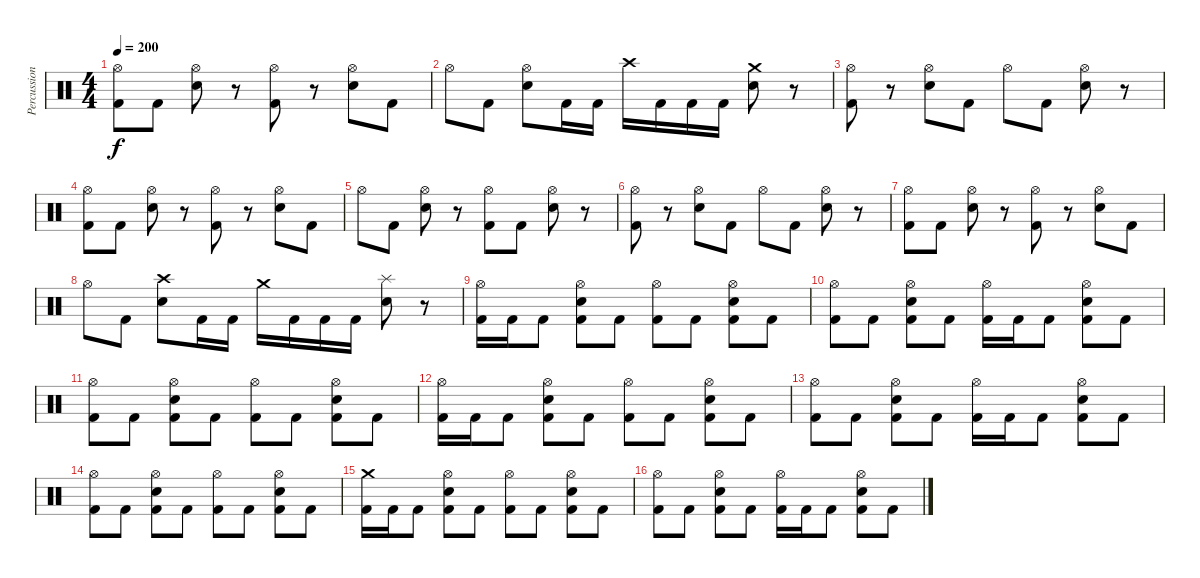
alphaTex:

\track ("Percussions" "Percussion") {instrument percussion}
\staff {score}
\articulation defaults
\ts (4 4)
\tempo 200
\clef neutral
\ks c
("Hi-Hat (open)" "Kick (hit) 2").8{dy f} "Kick (hit) 2".8 ("Hi-Hat (open)" "Electric Snare (hit)").8 r.8 ("Hi-Hat (open)" "Kick (hit) 2").8 r.8 ("Hi-Hat (open)" "Electric Snare (hit)").8 "Kick (hit) 2".8 |
"Hi-Hat (open)".8 "Kick (hit) 2".8 ("Hi-Hat (open)" "Electric Snare (hit)").8 "Kick (hit) 2".16 "Kick (hit) 2".16 "Crash high (hit)".16{balance 16} "Kick (hit) 2".16 "Kick (hit) 2".16 "Kick (hit) 2".16 ("Crash medium (hit)" "Electric Snare (hit)").8{balance 0} r.8 |
("Hi-Hat (open)" "Kick (hit) 2").8{balance 8} r.8 ("Hi-Hat (open)" "Electric Snare (hit)").8 "Kick (hit) 2".8 "Hi-Hat (open)".8 "Kick (hit) 2".8 ("Hi-Hat (open)" "Electric Snare (hit)").8 r.8 |
("Hi-Hat (open)" "Kick (hit) 2").8 "Kick (hit) 2".8 ("Hi-Hat (open)" "Electric Snare (hit)").8 r.8 ("Hi-Hat (open)" "Kick (hit) 2").8 r.8 ("Hi-Hat (open)" "Electric Snare (hit)").8 "Kick (hit) 2".8 |
"Hi-Hat (open)".8 "Kick (hit) 2".8 ("Hi-Hat (open)" "Electric Snare (hit)").8 r.8 ("Hi-Hat (open)" "Kick (hit) 2").8 "Kick (hit) 2".8 ("Hi-Hat (open)" "Electric Snare (hit)").8 r.8 |
("Hi-Hat (open)" "Kick (hit) 2").8 r.8 ("Hi-Hat (open)" "Electric Snare (hit)").8 "Kick (hit) 2".8 "Hi-Hat (open)".8 "Kick (hit) 2".8 ("Hi-Hat (open)" "Electric Snare (hit)").8 r.8 |
("Hi-Hat (open)" "Kick (hit) 2").8 "Kick (hit) 2".8 ("Hi-Hat (open)" "Electric Snare (hit)").8 r.8 ("Hi-Hat (open)" "Kick (hit) 2").8 r.8 ("Hi-Hat (open)" "Electric Snare (hit)").8 "Kick (hit) 2".8 |
"Hi-Hat (open)".8 "Kick (hit) 2".8 ("Crash high (hit)" "Electric Snare (hit)").8{balance 16} "Kick (hit) 2".16 "Kick (hit) 2".16 "Crash medium (hit)".16{balance 0} "Kick (hit) 2".16 "Kick (hit) 2".16 "Kick (hit) 2".16 ("Splash (hit)" "Electric Snare (hit)").8{balance 3} r.8 |
("Hi-Hat (open)" "Kick (hit) 2").16{balance 8} "Kick (hit) 2".16 "Kick (hit) 2".8 ("Hi-Hat (open)" "Electric Snare (hit)" "Kick (hit) 2").8 "Kick (hit) 2".8 ("Hi-Hat (open)" "Kick (hit) 2").8 "Kick (hit) 2".8 ("Hi-Hat (open)" "Electric Snare (hit)" "Kick (hit) 2").8 "Kick (hit) 2".8 |
("Hi-Hat (open)" "Kick (hit) 2").8 "Kick (hit) 2".8 ("Hi-Hat (open)" "Electric Snare (hit)" "Kick (hit) 2").8 "Kick (hit) 2".8 ("Hi-Hat (open)" "Kick (hit) 2").16 "Kick (hit) 2".16 "Kick (hit) 2".8 ("Hi-Hat (open)" "Electric Snare (hit)" "Kick (hit) 2").8 "Kick (hit) 2".8 |
("Hi-Hat (open)" "Kick (hit) 2").8 "Kick (hit) 2".8 ("Hi-Hat (open)" "Electric Snare (hit)" "Kick (hit) 2").8 "Kick (hit) 2".8 ("Hi-Hat (open)" "Kick (hit) 2").8 "Kick (hit) 2".8 ("Hi-Hat (open)" "Electric Snare (hit)" "Kick (hit) 2").8 "Kick (hit) 2".8 |
("Hi-Hat (open)" "Kick (hit) 2").16 "Kick (hit) 2".16 "Kick (hit) 2".8 ("Hi-Hat (open)" "Electric Snare (hit)" "Kick (hit) 2").8 "Kick (hit) 2".8 ("Hi-Hat (open)" "Kick (hit) 2").8 "Kick (hit) 2".8 ("Hi-Hat (open)" "Electric Snare (hit)" "Kick (hit) 2").8 "Kick (hit) 2".8 |
("Hi-Hat (open)" "Kick (hit) 2").8 "Kick (hit) 2".8 ("Hi-Hat (open)" "Electric Snare (hit)" "Kick (hit) 2").8 "Kick (hit) 2".8 ("Hi-Hat (open)" "Kick (hit) 2").16 "Kick (hit) 2".16 "Kick (hit) 2".8 ("Hi-Hat (open)" "Electric Snare (hit)" "Kick (hit) 2").8 "Kick (hit) 2".8 |
("Hi-Hat (open)" "Kick (hit) 2").8 "Kick (hit) 2".8 ("Hi-Hat (open)" "Electric Snare (hit)" "Kick (hit) 2").8 "Kick (hit) 2".8 ("Hi-Hat (open)" "Kick (hit) 2").8 "Kick (hit) 2".8 ("Hi-Hat (open)" "Electric Snare (hit)" "Kick (hit) 2").8 "Kick (hit) 2".8 |
("Crash medium (hit)" "Kick (hit) 2").16 "Kick (hit) 2".16 "Kick (hit) 2".8 ("Hi-Hat (open)" "Electric Snare (hit)" "Kick (hit) 2").8 "Kick (hit) 2".8 ("Hi-Hat (open)" "Kick (hit) 2").8 "Kick (hit) 2".8 ("Hi-Hat (open)" "Electric Snare (hit)" "Kick (hit) 2").8 "Kick (hit) 2".8 |
("Hi-Hat (open)" "Kick (hit) 2").8 "Kick (hit) 2".8 ("Hi-Hat (open)" "Electric Snare (hit)" "Kick (hit) 2").8 "Kick (hit) 2".8 ("Hi-Hat (open)" "Kick (hit) 2").16 "Kick (hit) 2".16 "Kick (hit) 2".8 ("Hi-Hat (open)" "Electric Snare (hit)" "Kick (hit) 2").8 "Kick (hit) 2".8
